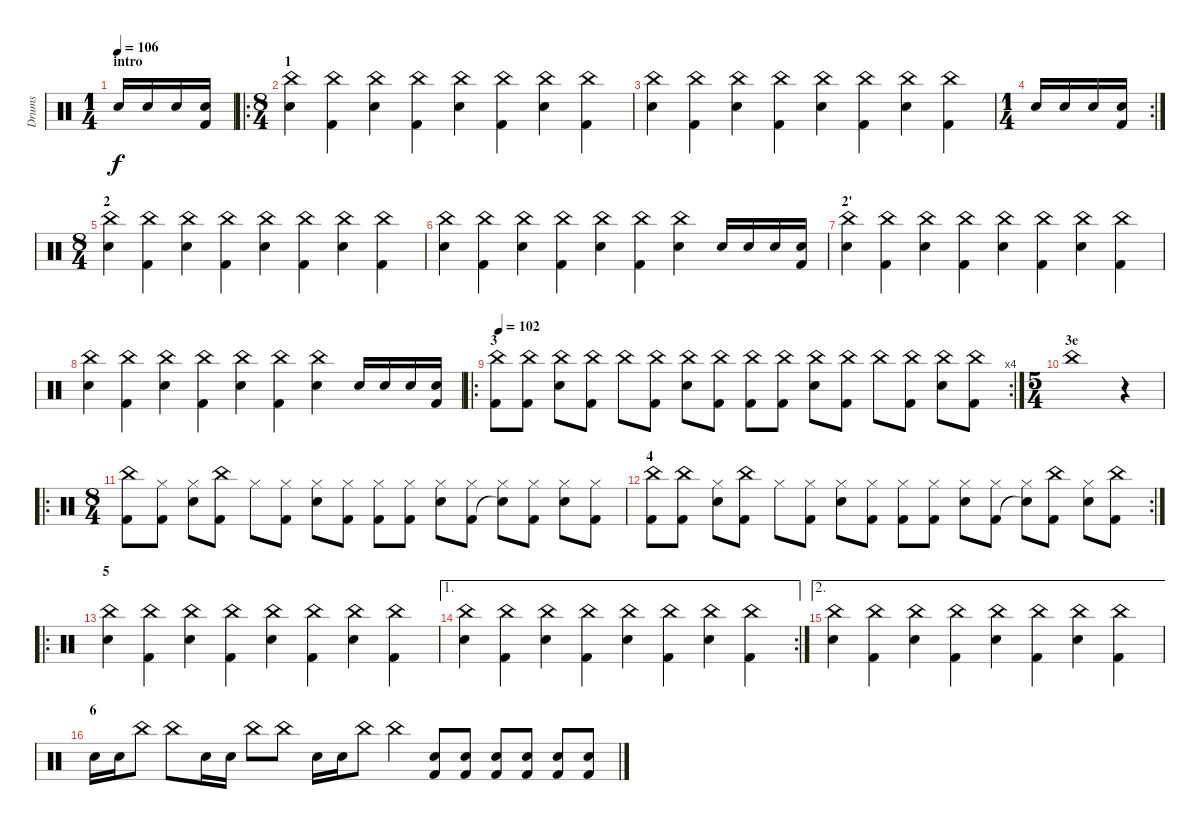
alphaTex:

\track ("Drums" "Drums") {instrument percussion}
\staff {score}
\articulation defaults
\ts (1 4)
\section ("" "intro")
\tempo 106
\clef neutral
\ks c "Snare (hit) 2".16{dy f} "Snare (hit) 2".16 "Electric Snare (hit)".16
("Electric Snare (hit)" "Kick (hit) 2").16 |
\ro
\ts (8 4)
\section ("" "1")
("China (hit)" "Electric Snare (hit)").4 ("China (hit)" "Kick (hit) 2").4 ("China (hit)" "Electric Snare (hit)").4 ("China (hit)" "Kick (hit) 2").4 ("China (hit)" "Electric Snare (hit)").4 ("China (hit)" "Kick (hit) 2").4 ("China (hit)" "Electric Snare (hit)").4 ("China (hit)" "Kick (hit) 2").4 |
("China (hit)" "Electric Snare (hit)").4 ("China (hit)" "Kick (hit) 2").4 ("China (hit)" "Electric Snare (hit)").4 ("China (hit)" "Kick (hit) 2").4 ("China (hit)" "Electric Snare (hit)").4 ("China (hit)" "Kick (hit) 2").4 ("China (hit)" "Electric Snare (hit)").4 ("China (hit)" "Kick (hit) 2").4 |
\rc 2
\ts (1 4)
"Snare (hit) 2".16 "Snare (hit) 2".16 "Electric Snare (hit)".16 ("Electric Snare (hit)" "Kick (hit) 2").16 |
\ts (8 4)
\section ("" "2")
("China (hit)" "Electric Snare (hit)").4 ("China (hit)" "Kick (hit) 2").4 ("China (hit)" "Electric Snare (hit)").4 ("China (hit)" "Kick (hit) 2").4 ("China (hit)" "Electric Snare (hit)").4 ("China (hit)" "Kick (hit) 2").4 ("China (hit)" "Electric Snare (hit)").4 ("China (hit)" "Kick (hit) 2").4 |
("China (hit)" "Electric Snare (hit)").4 ("China (hit)" "Kick (hit) 2").4 ("China (hit)" "Electric Snare (hit)").4 ("China (hit)" "Kick (hit) 2").4 ("China (hit)" "Electric Snare (hit)").4 ("China (hit)" "Kick (hit) 2").4 ("China (hit)" "Electric Snare (hit)").4 "Snare (hit) 2".16 "Snare (hit) 2".16 "Electric Snare (hit)".16 ("Electric Snare (hit)" "Kick (hit) 2").16 |
\section ("" "2'")
("China (hit)" "Electric Snare (hit)").4 ("China (hit)" "Kick (hit) 2").4 ("China (hit)" "Electric Snare (hit)").4 ("China (hit)" "Kick (hit) 2").4 ("China (hit)" "Electric Snare (hit)").4 ("China (hit)" "Kick (hit) 2").4 ("China (hit)" "Electric Snare (hit)").4 ("China (hit)" "Kick (hit) 2").4 |
("China (hit)" "Electric Snare (hit)").4 ("China (hit)" "Kick (hit) 2").4 ("China (hit)" "Electric Snare (hit)").4 ("China (hit)" "Kick (hit) 2").4 ("China (hit)" "Electric Snare (hit)").4 ("China (hit)" "Kick (hit) 2").4 ("China (hit)" "Electric Snare (hit)").4 "Snare (hit) 2".16 "Snare (hit) 2".16 "Electric Snare (hit)".16 ("Electric Snare (hit)" "Kick (hit) 2").16 |
\ro
\rc 4
\section ("" "3")
\tempo 102
("China (hit)" "Kick (hit) 2").8 ("China (hit)" "Kick (hit) 2").8 ("China (hit)" "Snare (hit) 2").8 ("China (hit)" "Kick (hit) 2").8 "China (hit)".8 ("China (hit)" "Kick (hit) 2").8 ("China (hit)" "Snare (hit) 2").8 ("China (hit)" "Kick (hit) 2").8 ("China (hit)" "Kick (hit) 2").8 ("China (hit)" "Kick (hit) 2").8 ("China (hit)" "Snare (hit) 2").8 ("China (hit)" "Kick (hit) 2").8 "China (hit)".8 ("China (hit)" "Kick (hit) 2").8 ("China (hit)" "Snare (hit) 2").8 ("China (hit)" "Kick (hit) 2").8 |
\ts (5 4)
\section ("" "3e")
"China (hit)".1 r.4 |
\ro
\ts (8 4)
("China (hit)" "Kick (hit) 2").8 ("Hi-Hat (closed)" "Kick (hit) 2").8 ("Hi-Hat (closed)" "Snare (hit) 2").8 ("China (hit)" "Kick (hit) 2").8 "Hi-Hat (closed)".8 ("Hi-Hat (closed)" "Kick (hit) 2").8 ("Hi-Hat (closed)" "Snare (hit) 2").8 ("Hi-Hat (closed)" "Kick (hit) 2").8 ("Hi-Hat (closed)" "Kick (hit) 2").8 ("Hi-Hat (closed)" "Kick (hit) 2").8 ("Hi-Hat (closed)" "Snare (hit) 2").8 ("Hi-Hat (closed)" "Kick (hit) 2").8 ("Hi-Hat (closed)" "Snare (hit)"{t}).8 ("Hi-Hat (closed)" "Kick (hit) 2").8 ("Hi-Hat (closed)" "Snare (hit) 2").8 ("Hi-Hat (closed)" "Kick (hit) 2").8 |
\rc 2
\section ("" "4")
("China (hit)" "Kick (hit) 2").8 ("China (hit)" "Kick (hit) 2").8 ("Hi-Hat (closed)" "Snare (hit) 2").8 ("China (hit)" "Kick (hit) 2").8 "Hi-Hat (closed)".8 ("Hi-Hat (closed)" "Kick (hit) 2").8 ("Hi-Hat (closed)" "Snare (hit) 2").8 ("Hi-Hat (closed)" "Kick (hit) 2").8 ("Hi-Hat (closed)" "Kick (hit) 2").8 ("Hi-Hat (closed)" "Kick (hit) 2").8 ("Hi-Hat (closed)" "Snare (hit) 2").8 ("Hi-Hat (closed)" "Kick (hit) 2").8 ("Hi-Hat (closed)" "Snare (hit)"{t}).8 ("China (hit)" "Kick (hit) 2").8 ("Hi-Hat (closed)" "Snare (hit) 2").8 ("China (hit)" "Kick (hit) 2").8 |
\ro
\section ("" "5")
("China (hit)" "Electric Snare (hit)").4 ("China (hit)" "Kick (hit) 2").4 ("China (hit)" "Electric Snare (hit)").4 ("China (hit)" "Kick (hit) 2").4 ("China (hit)" "Electric Snare (hit)").4 ("China (hit)" "Kick (hit) 2").4 ("China (hit)" "Electric Snare (hit)").4 ("China (hit)" "Kick (hit) 2").4 |
\ae 1
\rc 2
("China (hit)" "Electric Snare (hit)").4 ("China (hit)" "Kick (hit) 2").4 ("China (hit)" "Electric Snare (hit)").4 ("China (hit)" "Kick (hit) 2").4 ("China (hit)" "Electric Snare (hit)").4 ("China (hit)" "Kick (hit) 2").4 ("China (hit)" "Electric Snare (hit)").4 ("China (hit)" "Kick (hit) 2").4 |
\ae 2
("China (hit)" "Electric Snare (hit)").4 ("China (hit)" "Kick (hit) 2").4 ("China (hit)" "Electric Snare (hit)").4 ("China (hit)" "Kick (hit) 2").4 ("China (hit)" "Electric Snare (hit)").4 ("China (hit)" "Kick (hit) 2").4 ("China (hit)" "Electric Snare (hit)").4 ("China (hit)" "Kick (hit) 2").4 |
\section ("" "6")
"Electric Snare (hit)".16 "Electric Snare (hit)".16 "China (hit)".8 "China (hit)".8 "Electric Snare (hit)".16 "Electric Snare (hit)".16 "China (hit)".8 "China (hit)".8 "Electric Snare (hit)".16 "Electric Snare (hit)".16 "China (hit)".8 "China (hit)".4 ("Snare (hit) 2" "Kick (hit) 2").8 ("Snare (hit) 2" "Kick (hit) 2").8 ("Snare (hit) 2" "Kick (hit) 2").8 ("Snare (hit) 2" "Kick (hit) 2").8 ("Snare (hit) 2" "Kick (hit) 2").8 ("Snare (hit) 2" "Kick (hit) 2").8
